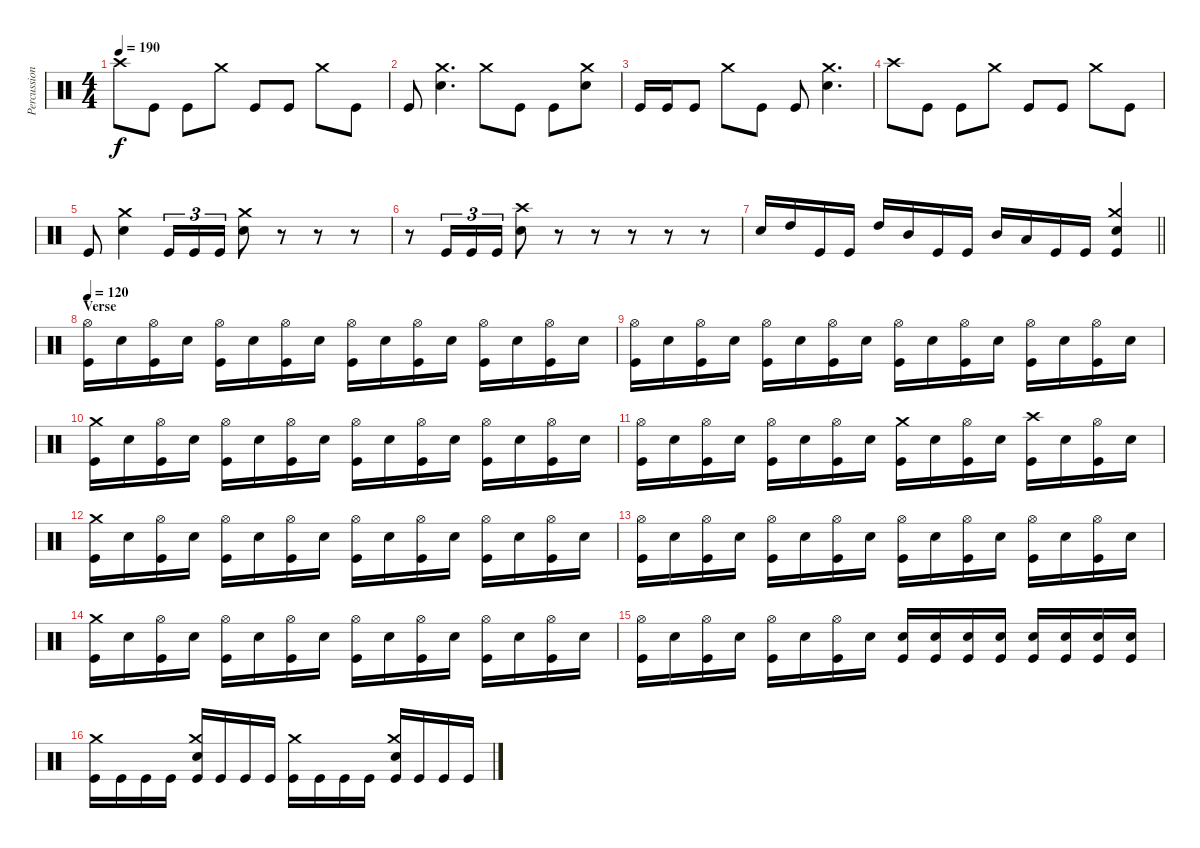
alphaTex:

\track ("Percussion" "Percussion") {instrument percussion}
\staff {score}
\articulation defaults
\ts (4 4)
\tempo 190
\clef neutral
\ks c "Crash high (hit)".8{dy f} "Kick (hit)".8 "Kick (hit)".8 "Crash medium (hit)".8 "Kick (hit)".8 "Kick (hit)".8 "Crash medium (hit)".8 "Kick (hit)".8
|
"Kick (hit)".8 ("Crash medium (hit)" "Snare (hit) 2").4{d} "Crash medium (hit)".8 "Kick (hit)".8 "Kick (hit)".8 ("Crash medium (hit)" "Snare (hit) 2").8 |
"Kick (hit)".16 "Kick (hit)".16 "Kick (hit)".8 "Crash medium (hit)".8 "Kick (hit)".8 "Kick (hit)".8 ("Crash medium (hit)" "Snare (hit) 2").4{d} |
"Crash high (hit)".8 "Kick (hit)".8 "Kick (hit)".8 "Crash medium (hit)".8 "Kick (hit)".8 "Kick (hit)".8 "Crash medium (hit)".8 "Kick (hit)".8 |
"Kick (hit)".8 ("Crash medium (hit)" "Snare (hit) 2").4 "Kick (hit)".16{tu (3 2)} "Kick (hit)".16{tu (3 2)} "Kick (hit)".16{tu (3 2)} ("Crash medium (hit)" "Snare (hit) 2").8 r.8 r.8 r.8 |
r.8 "Kick (hit)".16{tu (3 2)} "Kick (hit)".16{tu (3 2)} "Kick (hit)".16{tu (3 2)} ("Crash high (hit)" "Snare (hit) 2").8 r.8 r.8 r.8 r.8 r.8 |
\barLineRight lightlight "Snare (hit) 2".16 "High Tom (hit)".16 "Kick (hit)".16 "Kick (hit)".16 "High Tom (hit)".16 "Mid Tom (hit)".16 "Kick (hit)".16 "Kick (hit)".16 "Mid Tom (hit)".16 "Low Tom (hit)".16 "Kick (hit)".16 "Kick (hit)".16
("Crash medium (hit)" "Snare (hit) 2" "Kick (hit)").4 |
\section ("" "Verse")
\tempo 120
("Hi-Hat (open)" "Kick (hit)").16 "Snare (hit) 2".16 ("Hi-Hat (open)" "Kick (hit)").16 "Snare (hit) 2".16 ("Hi-Hat (open)" "Kick (hit)").16 "Snare (hit) 2".16 ("Hi-Hat (open)" "Kick (hit)").16 "Snare (hit) 2".16 ("Hi-Hat (open)" "Kick (hit)").16 "Snare (hit) 2".16 ("Hi-Hat (open)" "Kick (hit)").16 "Snare (hit) 2".16 ("Hi-Hat (open)" "Kick (hit)").16 "Snare (hit) 2".16 ("Hi-Hat (open)" "Kick (hit)").16 "Snare (hit) 2".16 |
("Hi-Hat (open)" "Kick (hit)").16 "Snare (hit) 2".16 ("Hi-Hat (open)" "Kick (hit)").16 "Snare (hit) 2".16 ("Hi-Hat (open)" "Kick (hit)").16 "Snare (hit) 2".16 ("Hi-Hat (open)" "Kick (hit)").16 "Snare (hit) 2".16 ("Hi-Hat (open)" "Kick (hit)").16 "Snare (hit) 2".16 ("Hi-Hat (open)" "Kick (hit)").16 "Snare (hit) 2".16 ("Hi-Hat (open)" "Kick (hit)").16 "Snare (hit) 2".16 ("Hi-Hat (open)" "Kick (hit)").16 "Snare (hit) 2".16 |
("Crash medium (hit)" "Kick (hit)").16 "Snare (hit) 2".16 ("Hi-Hat (open)" "Kick (hit)").16 "Snare (hit) 2".16 ("Hi-Hat (open)" "Kick (hit)").16 "Snare (hit) 2".16 ("Hi-Hat (open)" "Kick (hit)").16 "Snare (hit) 2".16 ("Hi-Hat (open)" "Kick (hit)").16 "Snare (hit) 2".16 ("Hi-Hat (open)" "Kick (hit)").16 "Snare (hit) 2".16 ("Hi-Hat (open)" "Kick (hit)").16 "Snare (hit) 2".16 ("Hi-Hat (open)" "Kick (hit)").16 "Snare (hit) 2".16 |
("Hi-Hat (open)" "Kick (hit)").16 "Snare (hit) 2".16 ("Hi-Hat (open)" "Kick (hit)").16 "Snare (hit) 2".16 ("Hi-Hat (open)" "Kick (hit)").16 "Snare (hit) 2".16 ("Hi-Hat (open)" "Kick (hit)").16 "Snare (hit) 2".16 ("Crash medium (hit)" "Kick (hit)").16 "Snare (hit) 2".16 ("Hi-Hat (open)" "Kick (hit)").16 "Snare (hit) 2".16 ("Crash high (hit)" "Kick (hit)").16 "Snare (hit) 2".16 ("Hi-Hat (open)" "Kick (hit)").16 "Snare (hit) 2".16 |
("Crash medium (hit)" "Kick (hit)").16 "Snare (hit) 2".16 ("Hi-Hat (open)" "Kick (hit)").16 "Snare (hit) 2".16 ("Hi-Hat (open)" "Kick (hit)").16 "Snare (hit) 2".16 ("Hi-Hat (open)" "Kick (hit)").16 "Snare (hit) 2".16 ("Hi-Hat (open)" "Kick (hit)").16 "Snare (hit) 2".16 ("Hi-Hat (open)" "Kick (hit)").16 "Snare (hit) 2".16 ("Hi-Hat (open)" "Kick (hit)").16 "Snare (hit) 2".16 ("Hi-Hat (open)" "Kick (hit)").16 "Snare (hit) 2".16 |
("Hi-Hat (open)" "Kick (hit)").16 "Snare (hit) 2".16 ("Hi-Hat (open)" "Kick (hit)").16 "Snare (hit) 2".16 ("Hi-Hat (open)" "Kick (hit)").16 "Snare (hit) 2".16 ("Hi-Hat (open)" "Kick (hit)").16 "Snare (hit) 2".16 ("Hi-Hat (open)" "Kick (hit)").16 "Snare (hit) 2".16 ("Hi-Hat (open)" "Kick (hit)").16 "Snare (hit) 2".16 ("Hi-Hat (open)" "Kick (hit)").16 "Snare (hit) 2".16 ("Hi-Hat (open)" "Kick (hit)").16 "Snare (hit) 2".16 |
("Crash medium (hit)" "Kick (hit)").16 "Snare (hit) 2".16 ("Hi-Hat (open)" "Kick (hit)").16 "Snare (hit) 2".16 ("Hi-Hat (open)" "Kick (hit)").16 "Snare (hit) 2".16 ("Hi-Hat (open)" "Kick (hit)").16 "Snare (hit) 2".16 ("Hi-Hat (open)" "Kick (hit)").16 "Snare (hit) 2".16 ("Hi-Hat (open)" "Kick (hit)").16 "Snare (hit) 2".16 ("Hi-Hat (open)" "Kick (hit)").16 "Snare (hit) 2".16 ("Hi-Hat (open)" "Kick (hit)").16 "Snare (hit) 2".16 |
("Hi-Hat (open)" "Kick (hit)").16 "Snare (hit) 2".16 ("Hi-Hat (open)" "Kick (hit)").16 "Snare (hit) 2".16 ("Hi-Hat (open)" "Kick (hit)").16 "Snare (hit) 2".16 ("Hi-Hat (open)" "Kick (hit)").16 "Snare (hit) 2".16 ("Snare (hit) 2" "Kick (hit)").16 ("Snare (hit) 2" "Kick (hit)").16 ("Snare (hit) 2" "Kick (hit)").16 ("Snare (hit) 2" "Kick (hit)").16 ("Snare (hit) 2" "Kick (hit)").16 ("Snare (hit) 2" "Kick (hit)").16 ("Snare (hit) 2" "Kick (hit)").16 ("Snare (hit) 2" "Kick (hit)").16 |
("Crash medium (hit)" "Kick (hit)").16 "Kick (hit)".16 "Kick (hit)".16 "Kick (hit)".16 ("Crash medium (hit)" "Snare (hit) 2" "Kick (hit)").16 "Kick (hit)".16 "Kick (hit)".16 "Kick (hit)".16 ("Crash medium (hit)" "Kick (hit)").16 "Kick (hit)".16 "Kick (hit)".16 "Kick (hit)".16 ("Crash medium (hit)" "Snare (hit) 2" "Kick (hit)").16 "Kick (hit)".16 "Kick (hit)".16 "Kick (hit)".16
